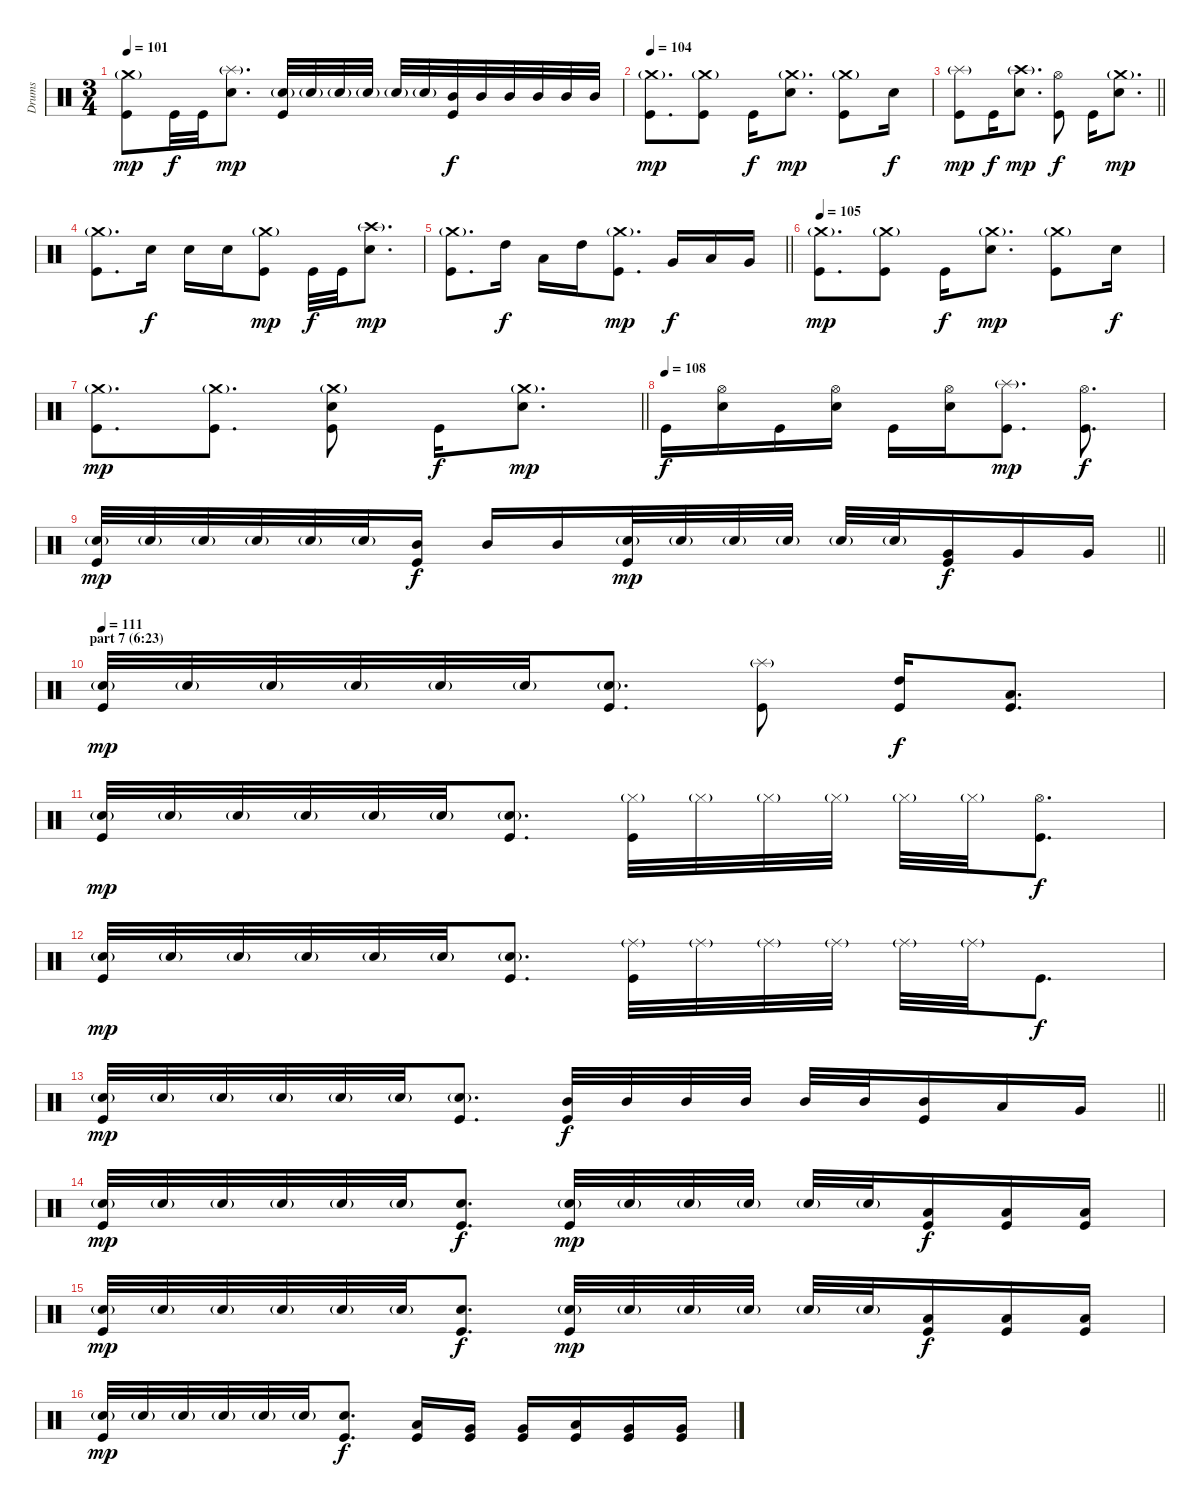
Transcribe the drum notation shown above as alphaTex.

\track ("Drums" "Drums") {instrument percussion}
\staff {score}
\articulation defaults
\ts (3 4)
\tempo 101
\clef neutral
\ks c
("Crash medium (hit)"{g} "Kick (hit)").8{dy mp} "Kick (hit)".32{dy f} "Kick (hit)".32 ("Splash (hit)"{g} "Snare (hit) 2").8{d dy mp} ("Snare (hit) 2"{g} "Kick (hit)").32 "Snare (hit) 2"{g}.32 "Snare (hit) 2"{g}.32 "Snare (hit) 2"{g}.32 "Snare (hit) 2"{g}.32 "Snare (hit) 2"{g}.32 ("Mid Tom (hit)" "Kick (hit)").32{dy f} "Mid Tom (hit)".32 "Mid Tom (hit)".32 "Mid Tom (hit)".32 "Mid Tom (hit)".32 "Mid Tom (hit)".32 |
\tempo 104
("Crash medium (hit)"{g} "Kick (hit)").8{d dy mp} ("Crash medium (hit)"{g} "Kick (hit)").8 "Kick (hit)".16{dy f} ("Crash medium (hit)"{g} "Snare (hit) 2").8{d dy mp} ("Crash medium (hit)"{g} "Kick (hit)").8 "Snare (hit) 2".16{dy f} |
\barLineRight lightlight
("Splash (hit)"{g} "Kick (hit)").8{dy mp} "Kick (hit)".16{dy f} ("Crash high (hit)"{g} "Snare (hit) 2").8{d dy mp} ("Hi-Hat (open)" "Kick (hit)").8{dy f} "Kick (hit)".16 ("Crash medium (hit)"{g} "Snare (hit) 2").8{d dy mp} |
("Crash medium (hit)"{g} "Kick (hit)").8{d} "Snare (hit) 2".16{dy f} "Snare (hit) 2".16 "Snare (hit) 2".16 ("Crash medium (hit)"{g} "Kick (hit)").8{dy mp} "Kick (hit)".32{dy f} "Kick (hit)".32 ("Crash high (hit)"{g} "Snare (hit) 2").8{d dy mp} |
\barLineRight lightlight
("Crash medium (hit)"{g} "Kick (hit)").8{d} "High Tom (hit)".16{dy f} "Low Tom (hit)".16 "High Tom (hit)".16 ("Crash medium (hit)"{g} "Kick (hit)").8{d dy mp} "Very Low Tom (hit)".16{dy f} "Low Floor Tom (hit)".16 "Very Low Tom (hit)".16 |
\tempo 105
("Crash medium (hit)"{g} "Kick (hit)").8{d dy mp} ("Crash medium (hit)"{g} "Kick (hit)").8 "Kick (hit)".16{dy f} ("Crash medium (hit)"{g} "Snare (hit) 2").8{d dy mp} ("Crash medium (hit)"{g} "Kick (hit)").8 "Snare (hit) 2".16{dy f} |
\barLineRight lightlight
("Crash medium (hit)"{g} "Kick (hit)").8{d dy mp} ("Crash medium (hit)"{g} "Kick (hit)").8{d} ("Crash medium (hit)"{g} "Snare (hit) 2" "Kick (hit)").8 "Kick (hit)".16{dy f} ("Crash medium (hit)"{g} "Snare (hit) 2").8{d dy mp} |
\tempo (108)
"Kick (hit)".16{dy f} ("Hi-Hat (open)" "Snare (hit) 2").16 "Kick (hit)".16 ("Hi-Hat (open)" "Snare (hit) 2").16 "Kick (hit)".16 ("Hi-Hat (open)" "Snare (hit) 2").16 ("Splash (hit)"{g} "Kick (hit)").8{d dy mp} ("Hi-Hat (open)" "Kick (hit)").8{d dy f} |
\barLineRight lightlight
("Snare (hit) 2"{g} "Kick (hit)").32{dy mp} "Snare (hit) 2"{g}.32 "Snare (hit) 2"{g}.32 "Snare (hit) 2"{g}.32 "Snare (hit) 2"{g}.32 "Snare (hit) 2"{g}.32 ("Mid Tom (hit)" "Kick (hit)").16{dy f} "Mid Tom (hit)".16 "Mid Tom (hit)".16 ("Snare (hit) 2"{g} "Kick (hit)").32{dy mp} "Snare (hit) 2"{g}.32 "Snare (hit) 2"{g}.32 "Snare (hit) 2"{g}.32 "Snare (hit) 2"{g}.32 "Snare (hit) 2"{g}.32 ("Very Low Tom (hit)" "Kick (hit)").16{dy f} "Very Low Tom (hit)".16 "Very Low Tom (hit)".16 |
\section ("" "part 7 (6:23)")
\tempo 111
("Snare (hit) 2"{g} "Kick (hit)").32{dy mp} "Snare (hit) 2"{g}.32 "Snare (hit) 2"{g}.32 "Snare (hit) 2"{g}.32 "Snare (hit) 2"{g}.32 "Snare (hit) 2"{g}.32 ("Snare (hit) 2"{g} "Kick (hit)").8{d} ("Splash (hit)"{g} "Kick (hit)").8 ("High Tom (hit)" "Kick (hit)").16{dy f} ("Low Tom (hit)" "Kick (hit)").8{d} |
("Snare (hit) 2"{g} "Kick (hit)").32{dy mp} "Snare (hit) 2"{g}.32 "Snare (hit) 2"{g}.32 "Snare (hit) 2"{g}.32 "Snare (hit) 2"{g}.32 "Snare (hit) 2"{g}.32 ("Snare (hit) 2"{g} "Kick (hit)").8{d} ("Hi-Hat (closed)"{g} "Kick (hit)").32 "Hi-Hat (closed)"{g}.32 "Hi-Hat (closed)"{g}.32 "Hi-Hat (closed)"{g}.32 "Hi-Hat (closed)"{g}.32 "Hi-Hat (closed)"{g}.32 ("Hi-Hat (open)" "Kick (hit)").8{d dy f} |
("Snare (hit) 2"{g} "Kick (hit)").32{dy mp} "Snare (hit) 2"{g}.32 "Snare (hit) 2"{g}.32 "Snare (hit) 2"{g}.32 "Snare (hit) 2"{g}.32 "Snare (hit) 2"{g}.32 ("Snare (hit) 2"{g} "Kick (hit)").8{d} ("Ride (middle)"{g} "Kick (hit)").32 "Ride (middle)"{g}.32 "Ride (middle)"{g}.32 "Ride (middle)"{g}.32 "Ride (middle)"{g}.32 "Ride (middle)"{g}.32 "Kick (hit)".8{d dy f} |
\barLineRight lightlight
("Snare (hit) 2"{g} "Kick (hit)").32{dy mp} "Snare (hit) 2"{g}.32 "Snare (hit) 2"{g}.32 "Snare (hit) 2"{g}.32 "Snare (hit) 2"{g}.32 "Snare (hit) 2"{g}.32 ("Snare (hit) 2"{g} "Kick (hit)").8{d} ("Mid Tom (hit)" "Kick (hit)").32{dy f} "Mid Tom (hit)".32 "Mid Tom (hit)".32 "Mid Tom (hit)".32 "Mid Tom (hit)".32 "Mid Tom (hit)".32 ("Mid Tom (hit)" "Kick (hit)").16 "Low Tom (hit)".16 "Very Low Tom (hit)".16 |
("Snare (hit) 2"{g} "Kick (hit)").32{dy mp} "Snare (hit) 2"{g}.32 "Snare (hit) 2"{g}.32 "Snare (hit) 2"{g}.32 "Snare (hit) 2"{g}.32 "Snare (hit) 2"{g}.32 ("Snare (hit) 2" "Kick (hit)").8{d dy f} ("Snare (hit) 2"{g} "Kick (hit)").32{dy mp} "Snare (hit) 2"{g}.32 "Snare (hit) 2"{g}.32 "Snare (hit) 2"{g}.32 "Snare (hit) 2"{g}.32 "Snare (hit) 2"{g}.32 ("Low Tom (hit)" "Kick (hit)").16{dy f} ("Low Tom (hit)" "Kick (hit)").16 ("Low Tom (hit)" "Kick (hit)").16 |
("Snare (hit) 2"{g} "Kick (hit)").32{dy mp} "Snare (hit) 2"{g}.32 "Snare (hit) 2"{g}.32 "Snare (hit) 2"{g}.32 "Snare (hit) 2"{g}.32 "Snare (hit) 2"{g}.32 ("Snare (hit) 2" "Kick (hit)").8{d dy f} ("Snare (hit) 2"{g} "Kick (hit)").32{dy mp} "Snare (hit) 2"{g}.32 "Snare (hit) 2"{g}.32 "Snare (hit) 2"{g}.32 "Snare (hit) 2"{g}.32 "Snare (hit) 2"{g}.32 ("Low Tom (hit)" "Kick (hit)").16{dy f} ("Low Tom (hit)" "Kick (hit)").16 ("Low Tom (hit)" "Kick (hit)").16 |
("Snare (hit) 2"{g} "Kick (hit)").32{dy mp} "Snare (hit) 2"{g}.32 "Snare (hit) 2"{g}.32 "Snare (hit) 2"{g}.32 "Snare (hit) 2"{g}.32 "Snare (hit) 2"{g}.32 ("Snare (hit) 2" "Kick (hit)").8{d dy f} ("Low Tom (hit)" "Kick (hit)").16 ("Very Low Tom (hit)" "Kick (hit)").16 ("Very Low Tom (hit)" "Kick (hit)").16 ("Low Tom (hit)" "Kick (hit)").16 ("Very Low Tom (hit)" "Kick (hit)").16 ("Very Low Tom (hit)" "Kick (hit)").16
